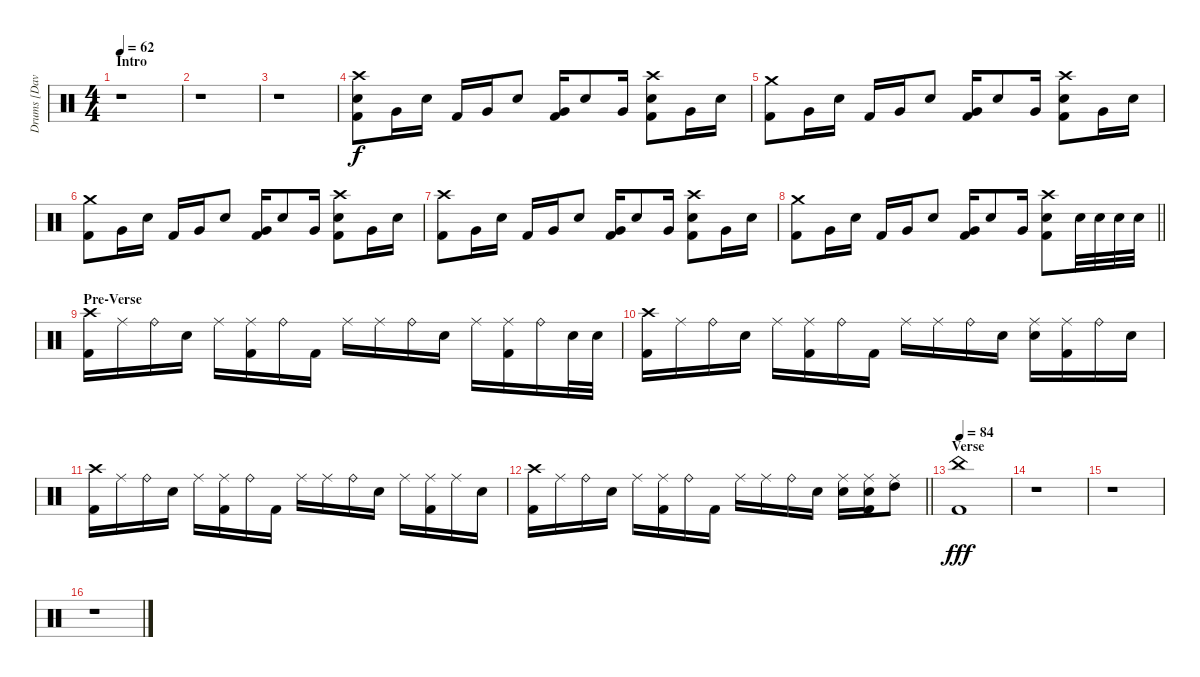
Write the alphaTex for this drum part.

\track ("Drums [Dave Lombardo]" "Drums [Dav") {instrument percussion}
\staff {score}
\articulation defaults
\ts (4 4)
\section ("" "Intro")
\tempo 62
\clef neutral
\ks c
r.1{dy f} |
r.1 |
r.1 |
("Crash high (hit)" "Electric Snare (hit)" "Kick (hit) 2").8 "Very Low Tom (hit)".16 "Electric Snare (hit)".16 "Kick (hit) 2".16 "Very Low Tom (hit)".16 "Electric Snare (hit)".8 ("Very Low Tom (hit)" "Kick (hit) 2").16 "Electric Snare (hit)".8 "Very Low Tom (hit)".16 ("Crash high (hit)" "Electric Snare (hit)" "Kick (hit) 2").8 "Very Low Tom (hit)".16 "Electric Snare (hit)".16 |
("Crash medium (hit)" "Kick (hit) 2").8 "Very Low Tom (hit)".16 "Electric Snare (hit)".16 "Kick (hit) 2".16 "Very Low Tom (hit)".16 "Electric Snare (hit)".8 ("Very Low Tom (hit)" "Kick (hit) 2").16 "Electric Snare (hit)".8 "Very Low Tom (hit)".16 ("Crash high (hit)" "Electric Snare (hit)" "Kick (hit) 2").8 "Very Low Tom (hit)".16 "Electric Snare (hit)".16 |
("Crash medium (hit)" "Kick (hit) 2").8 "Very Low Tom (hit)".16 "Electric Snare (hit)".16 "Kick (hit) 2".16 "Very Low Tom (hit)".16 "Electric Snare (hit)".8 ("Very Low Tom (hit)" "Kick (hit) 2").16 "Electric Snare (hit)".8 "Very Low Tom (hit)".16 ("Crash high (hit)" "Electric Snare (hit)" "Kick (hit) 2").8 "Very Low Tom (hit)".16 "Electric Snare (hit)".16 |
("Crash high (hit)" "Kick (hit) 2").8 "Very Low Tom (hit)".16 "Electric Snare (hit)".16 "Kick (hit) 2".16 "Very Low Tom (hit)".16 "Electric Snare (hit)".8 ("Very Low Tom (hit)" "Kick (hit) 2").16 "Electric Snare (hit)".8 "Very Low Tom (hit)".16 ("Crash high (hit)" "Electric Snare (hit)" "Kick (hit) 2").8 "Very Low Tom (hit)".16 "Electric Snare (hit)".16 |
\barLineRight lightlight
("Crash medium (hit)" "Kick (hit) 2").8 "Very Low Tom (hit)".16 "Electric Snare (hit)".16 "Kick (hit) 2".16 "Very Low Tom (hit)".16 "Electric Snare (hit)".8 ("Very Low Tom (hit)" "Kick (hit) 2").16 "Electric Snare (hit)".8 "Very Low Tom (hit)".16 ("Crash high (hit)" "Electric Snare (hit)" "Kick (hit) 2").8 "Electric Snare (hit)".32 "Electric Snare (hit)".32 "Electric Snare (hit)".32 "Electric Snare (hit)".32 |
\section ("" "Pre-Verse")
("Crash high (hit)" "Kick (hit) 2").16 "Ride (middle)".16 "Ride (bell)".16 "Electric Snare (hit)".16 "Ride (middle)".16 ("Ride (middle)" "Kick (hit) 2").16 "Ride (bell)".16 "Kick (hit) 2".16 "Ride (middle)".16 "Ride (middle)".16 "Ride (bell)".16 "Electric Snare (hit)".16 "Ride (middle)".16 ("Ride (middle)" "Kick (hit) 2").16 "Ride (bell)".16 "Electric Snare (hit)".32 "Electric Snare (hit)".32 |
("Crash high (hit)" "Kick (hit) 2").16 "Ride (middle)".16 "Ride (bell)".16 "Electric Snare (hit)".16 "Ride (middle)".16 ("Ride (middle)" "Kick (hit) 2").16 "Ride (bell)".16 "Kick (hit) 2".16 "Ride (middle)".16 "Ride (middle)".16 "Ride (bell)".16 "Electric Snare (hit)".16 ("Ride (middle)" "Electric Snare (hit)").16 ("Ride (middle)" "Kick (hit) 2").16 "Ride (bell)".16 "Electric Snare (hit)".16 |
("Crash high (hit)" "Kick (hit) 2").16 "Ride (middle)".16 "Ride (bell)".16 "Electric Snare (hit)".16 "Ride (middle)".16 ("Ride (middle)" "Kick (hit) 2").16 "Ride (bell)".16 "Kick (hit) 2".16 "Ride (middle)".16 "Ride (middle)".16 "Ride (bell)".16 "Electric Snare (hit)".16 "Ride (middle)".16 ("Ride (middle)" "Kick (hit) 2").16 "Ride (middle)".16 "Electric Snare (hit)".16 |
\barLineRight lightlight
("Crash high (hit)" "Kick (hit) 2").16 "Ride (middle)".16 "Ride (bell)".16 "Electric Snare (hit)".16 "Ride (middle)".16 ("Ride (middle)" "Kick (hit) 2").16 "Ride (bell)".16 "Kick (hit) 2".16 "Ride (middle)".16 "Ride (middle)".16 "Ride (bell)".16 "Electric Snare (hit)".16 ("Ride (middle)" "Electric Snare (hit)").16 ("Ride (middle)" "Electric Snare (hit)" "Kick (hit) 2").16 ("Ride (middle)" "High Tom (hit)").8 |
\section ("" "Verse")
\tempo 84
("China (hit)" "Kick (hit) 2").1{dy fff} |
r.1 |
r.1 |
r.1
